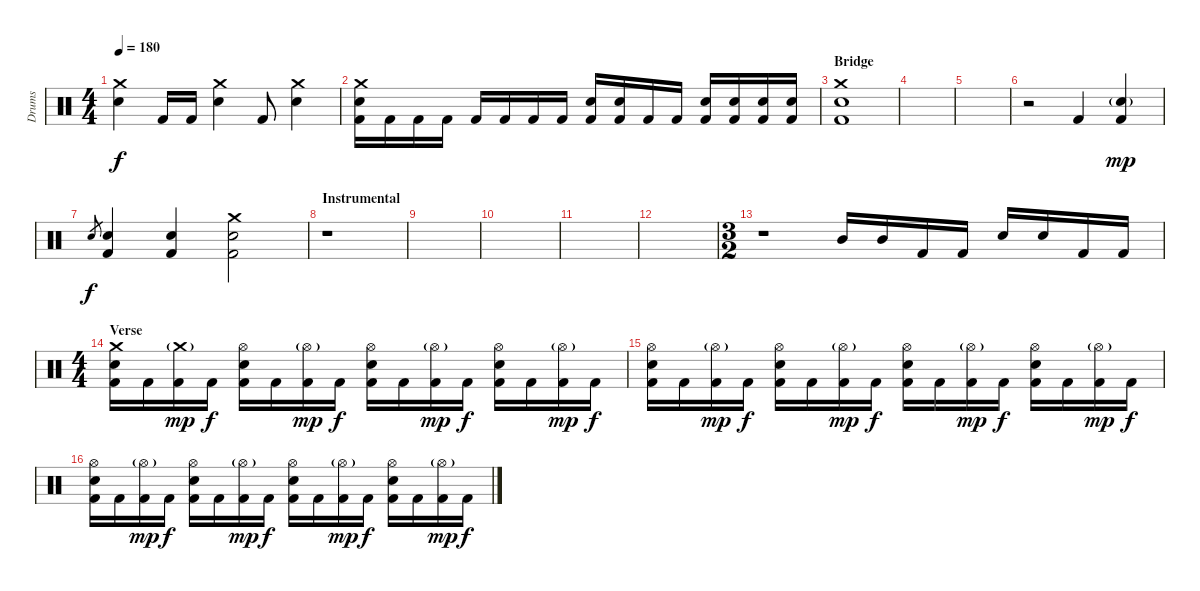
\track ("Drums" "Drums") {instrument percussion}
\staff {score}
\articulation defaults
\ts (4 4)
\tempo 180
\clef neutral
\ks c
("Crash medium (hit)" "Electric Snare (hit)").4{dy f} "Kick (hit) 2".16 "Kick (hit) 2".16 ("Crash medium (hit)" "Electric Snare (hit)").4 "Kick (hit) 2".8 ("Crash medium (hit)" "Electric Snare (hit)").4 |
("Crash medium (hit)" "Electric Snare (hit)" "Kick (hit) 2").16 "Kick (hit) 2".16 "Kick (hit) 2".16 "Kick (hit) 2".16 "Kick (hit) 2".16 "Kick (hit) 2".16 "Kick (hit) 2".16 "Kick (hit) 2".16 ("Electric Snare (hit)" "Kick (hit) 2").16 ("Electric Snare (hit)" "Kick (hit) 2").16 "Kick (hit) 2".16 "Kick (hit) 2".16 ("Electric Snare (hit)" "Kick (hit) 2").16 ("Electric Snare (hit)" "Kick (hit) 2").16 ("Electric Snare (hit)" "Kick (hit) 2").16 ("Electric Snare (hit)" "Kick (hit) 2").16 |
\section ("" "Bridge")
("Crash medium (hit)" "Electric Snare (hit)" "Kick (hit) 2").1 |
|
|
r.2 "Kick (hit) 2".4 ("Electric Snare (hit)"{g} "Kick (hit) 2").4{dy mp} |
"Electric Snare (hit)".8{gr dy f} ("Electric Snare (hit)" "Kick (hit) 2").4 ("Electric Snare (hit)" "Kick (hit) 2").4 ("Crash medium (hit)" "Electric Snare (hit)" "Kick (hit) 2").2 |
\section ("" "Instrumental")
r.1 |
|
|
|
|
\ts (3 2)
r.1 "Mid Tom (hit)".16 "Mid Tom (hit)".16 "Kick (hit) 2".16 "Kick (hit) 2".16 "Electric Snare (hit)".16 "Electric Snare (hit)".16 "Kick (hit) 2".16 "Kick (hit) 2".16 |
\ts (4 4)
\section ("" "Verse")
("Crash medium (hit)" "Electric Snare (hit)" "Kick (hit) 2").16 "Kick (hit) 2".16 ("Crash medium (hit)"{g} "Kick (hit) 2").16{dy mp} "Kick (hit) 2".16{dy f} ("Hi-Hat (open)" "Electric Snare (hit)" "Kick (hit) 2").16 "Kick (hit) 2".16 ("Hi-Hat (open)"{g} "Kick (hit) 2").16{dy mp} "Kick (hit) 2".16{dy f} ("Hi-Hat (open)" "Electric Snare (hit)" "Kick (hit) 2").16 "Kick (hit) 2".16 ("Hi-Hat (open)"{g} "Kick (hit) 2").16{dy mp} "Kick (hit) 2".16{dy f} ("Hi-Hat (open)" "Electric Snare (hit)" "Kick (hit) 2").16 "Kick (hit) 2".16 ("Hi-Hat (open)"{g} "Kick (hit) 2").16{dy mp} "Kick (hit) 2".16{dy f} |
("Hi-Hat (open)" "Electric Snare (hit)" "Kick (hit) 2").16 "Kick (hit) 2".16 ("Hi-Hat (open)"{g} "Kick (hit) 2").16{dy mp} "Kick (hit) 2".16{dy f} ("Hi-Hat (open)" "Electric Snare (hit)" "Kick (hit) 2").16 "Kick (hit) 2".16 ("Hi-Hat (open)"{g} "Kick (hit) 2").16{dy mp} "Kick (hit) 2".16{dy f} ("Hi-Hat (open)" "Electric Snare (hit)" "Kick (hit) 2").16 "Kick (hit) 2".16 ("Hi-Hat (open)"{g} "Kick (hit) 2").16{dy mp} "Kick (hit) 2".16{dy f} ("Hi-Hat (open)" "Electric Snare (hit)" "Kick (hit) 2").16 "Kick (hit) 2".16 ("Hi-Hat (open)"{g} "Kick (hit) 2").16{dy mp} "Kick (hit) 2".16{dy f} |
("Hi-Hat (open)" "Electric Snare (hit)" "Kick (hit) 2").16 "Kick (hit) 2".16 ("Hi-Hat (open)"{g} "Kick (hit) 2").16{dy mp} "Kick (hit) 2".16{dy f} ("Hi-Hat (open)" "Electric Snare (hit)" "Kick (hit) 2").16 "Kick (hit) 2".16 ("Hi-Hat (open)"{g} "Kick (hit) 2").16{dy mp} "Kick (hit) 2".16{dy f} ("Hi-Hat (open)" "Electric Snare (hit)" "Kick (hit) 2").16 "Kick (hit) 2".16 ("Hi-Hat (open)"{g} "Kick (hit) 2").16{dy mp} "Kick (hit) 2".16{dy f} ("Hi-Hat (open)" "Electric Snare (hit)" "Kick (hit) 2").16 "Kick (hit) 2".16 ("Hi-Hat (open)"{g} "Kick (hit) 2").16{dy mp} "Kick (hit) 2".16{dy f}
